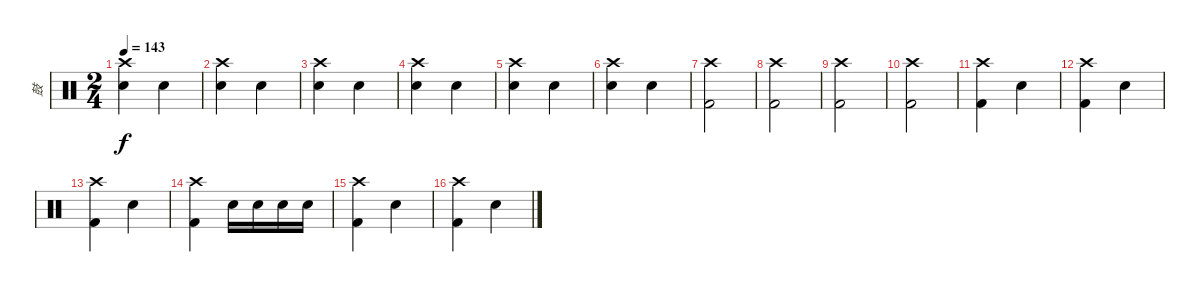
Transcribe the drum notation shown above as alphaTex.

\track ("鼓" "鼓") {instrument percussion}
\staff {score}
\articulation defaults
\ts (2 4)
\tempo 143
\clef neutral
\ks c
("Snare (hit) 2" "Crash high (hit)").4{dy f} "Hand Clap (hit)".4 |
("Snare (hit) 2" "Crash high (hit)").4 "Hand Clap (hit)".4 |
("Snare (hit) 2" "Crash high (hit)").4 "Hand Clap (hit)".4 |
("Snare (hit) 2" "Crash high (hit)").4 "Hand Clap (hit)".4 |
("Snare (hit) 2" "Crash high (hit)").4 "Hand Clap (hit)".4 |
("Snare (hit) 2" "Crash high (hit)").4 "Hand Clap (hit)".4 |
("Kick (hit) 2" "Crash high (hit)").2 |
("Kick (hit) 2" "Crash high (hit)").2 |
("Kick (hit) 2" "Crash high (hit)").2 |
("Kick (hit) 2" "Crash high (hit)").2 |
("Kick (hit) 2" "Crash high (hit)").4 "Hand Clap (hit)".4 |
("Kick (hit) 2" "Crash high (hit)").4 "Hand Clap (hit)".4 |
("Kick (hit) 2" "Crash high (hit)").4 "Hand Clap (hit)".4 |
("Kick (hit) 2" "Crash high (hit)").4 "Electric Snare (hit)".16 "Electric Snare (hit)".16 "Electric Snare (hit)".16 "Electric Snare (hit)".16 |
("Kick (hit) 2" "Crash high (hit)").4 "Hand Clap (hit)".4 |
("Kick (hit) 2" "Crash high (hit)").4 "Hand Clap (hit)".4
